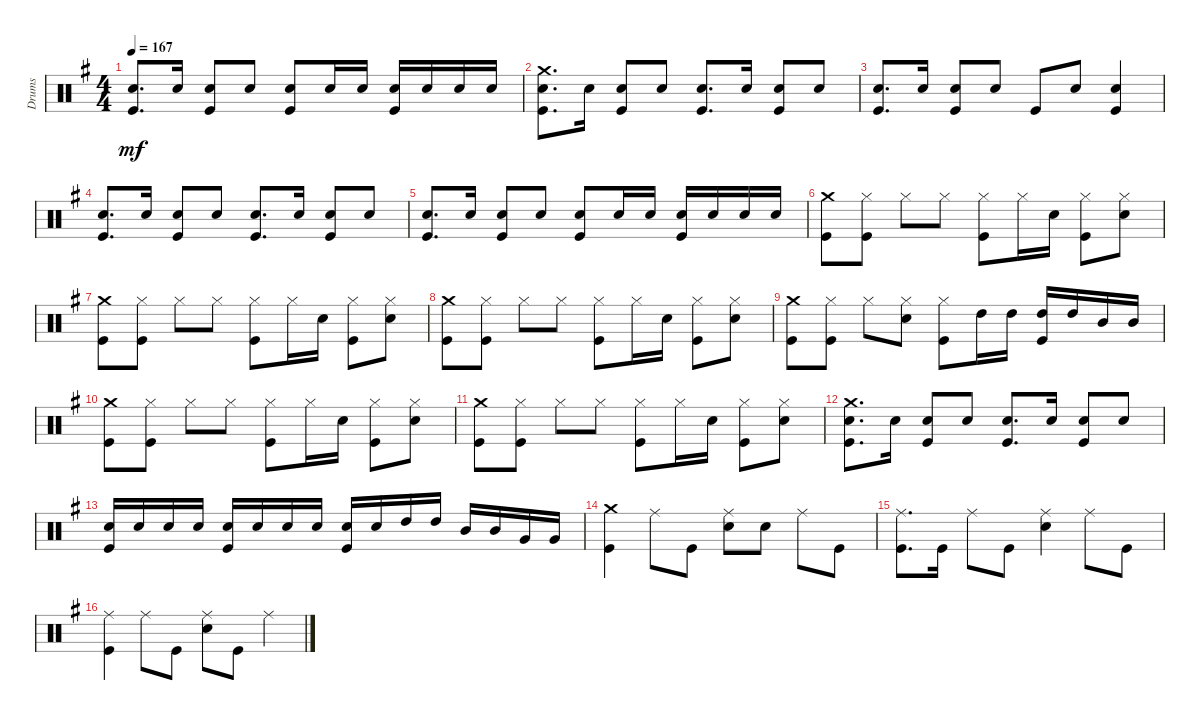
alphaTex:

\track ("Drums" "Drums") {instrument percussion}
\staff {score}
\articulation defaults
\ts (4 4)
\tempo 167
\clef neutral
\ks eminor
("Snare (hit) 2" "Kick (hit)").8{d dy mf} "Snare (hit) 2".16 ("Snare (hit) 2" "Kick (hit)").8 "Snare (hit) 2".8 ("Snare (hit) 2" "Kick (hit)").8 "Snare (hit) 2".16 "Snare (hit) 2".16 ("Kick (hit)" "Snare (hit) 2").16 "Snare (hit) 2".16 "Snare (hit) 2".16 "Snare (hit) 2".16 |
("Kick (hit)" "Snare (hit) 2" "Crash medium (hit)").8{d} "Snare (hit) 2".16 ("Snare (hit) 2" "Kick (hit)").8 "Snare (hit) 2".8 ("Snare (hit) 2" "Kick (hit)").8{d} "Snare (hit) 2".16 ("Snare (hit) 2" "Kick (hit)").8 "Snare (hit) 2".8 |
("Snare (hit) 2" "Kick (hit)").8{d} "Snare (hit) 2".16 ("Snare (hit) 2" "Kick (hit)").8 "Snare (hit) 2".8 "Kick (hit)".8 "Snare (hit) 2".8 ("Snare (hit) 2" "Kick (hit)").4 |
("Snare (hit) 2" "Kick (hit)").8{d} "Snare (hit) 2".16 ("Snare (hit) 2" "Kick (hit)").8 "Snare (hit) 2".8 ("Snare (hit) 2" "Kick (hit)").8{d} "Snare (hit) 2".16 ("Snare (hit) 2" "Kick (hit)").8 "Snare (hit) 2".8 |
("Snare (hit) 2" "Kick (hit)").8{d} "Snare (hit) 2".16 ("Snare (hit) 2" "Kick (hit)").8 "Snare (hit) 2".8 ("Snare (hit) 2" "Kick (hit)").8 "Snare (hit) 2".16 "Snare (hit) 2".16 ("Snare (hit) 2" "Kick (hit)").16 "Snare (hit) 2".16 "Snare (hit) 2".16 "Snare (hit) 2".16 |
("Crash medium (hit)" "Kick (hit)").8 ("Hi-Hat (closed)" "Kick (hit)").8 "Hi-Hat (closed)".8 "Hi-Hat (closed)".8 ("Hi-Hat (closed)" "Kick (hit)").8 "Hi-Hat (closed)".16 "Snare (hit) 2".16 ("Hi-Hat (closed)" "Kick (hit)").8 ("Hi-Hat (closed)" "Snare (hit) 2").8 |
("Crash medium (hit)" "Kick (hit)").8 ("Hi-Hat (closed)" "Kick (hit)").8 "Hi-Hat (closed)".8 "Hi-Hat (closed)".8 ("Hi-Hat (closed)" "Kick (hit)").8 "Hi-Hat (closed)".16 "Snare (hit) 2".16 ("Hi-Hat (closed)" "Kick (hit)").8 ("Hi-Hat (closed)" "Snare (hit) 2").8 |
("Crash medium (hit)" "Kick (hit)").8 ("Hi-Hat (closed)" "Kick (hit)").8 "Hi-Hat (closed)".8 "Hi-Hat (closed)".8 ("Hi-Hat (closed)" "Kick (hit)").8 "Hi-Hat (closed)".16 "Snare (hit) 2".16 ("Hi-Hat (closed)" "Kick (hit)").8 ("Hi-Hat (closed)" "Snare (hit) 2").8 |
("Crash medium (hit)" "Kick (hit)").8 ("Hi-Hat (closed)" "Kick (hit)").8 "Hi-Hat (closed)".8 ("Hi-Hat (closed)" "Snare (hit) 2").8 ("Hi-Hat (closed)" "Kick (hit)").8 "High Tom (hit)".16 "High Tom (hit)".16 ("Kick (hit)" "High Tom (hit)").16 "High Tom (hit)".16 "Mid Tom (hit)".16 "Mid Tom (hit)".16 |
("Crash medium (hit)" "Kick (hit)").8 ("Hi-Hat (closed)" "Kick (hit)").8 "Hi-Hat (closed)".8 "Hi-Hat (closed)".8 ("Hi-Hat (closed)" "Kick (hit)").8 "Hi-Hat (closed)".16 "Snare (hit) 2".16 ("Hi-Hat (closed)" "Kick (hit)").8 ("Hi-Hat (closed)" "Snare (hit) 2").8 |
("Crash medium (hit)" "Kick (hit)").8 ("Hi-Hat (closed)" "Kick (hit)").8 "Hi-Hat (closed)".8 "Hi-Hat (closed)".8 ("Hi-Hat (closed)" "Kick (hit)").8 "Hi-Hat (closed)".16 "Snare (hit) 2".16 ("Hi-Hat (closed)" "Kick (hit)").8 ("Hi-Hat (closed)" "Snare (hit) 2").8 |
("Snare (hit) 2" "Crash medium (hit)" "Kick (hit)").8{d} "Snare (hit) 2".16 ("Snare (hit) 2" "Kick (hit)").8 "Snare (hit) 2".8 ("Snare (hit) 2" "Kick (hit)").8{d} "Snare (hit) 2".16 ("Snare (hit) 2" "Kick (hit)").8 "Snare (hit) 2".8 |
("Kick (hit)" "Snare (hit) 2").16 "Snare (hit) 2".16 "Snare (hit) 2".16 "Snare (hit) 2".16 ("Snare (hit) 2" "Kick (hit)").16 "Snare (hit) 2".16 "Snare (hit) 2".16 "Snare (hit) 2".16 ("Snare (hit) 2" "Kick (hit)").16 "Snare (hit) 2".16 "High Tom (hit)".16 "High Tom (hit)".16 "Mid Tom (hit)".16 "Mid Tom (hit)".16 "Very Low Tom (hit)".16 "Very Low Tom (hit)".16 |
("Crash medium (hit)" "Kick (hit)").4 "Ride (middle)".8 "Kick (hit)".8 ("Snare (hit) 2" "Ride (middle)").8 "Snare (hit) 2".8 "Ride (middle)".8 "Kick (hit)".8 |
("Kick (hit)" "Ride (middle)").8{d} "Kick (hit)".16 "Ride (middle)".8 "Kick (hit)".8 ("Ride (middle)" "Snare (hit) 2").4 "Ride (middle)".8 "Kick (hit)".8 |
("Ride (middle)" "Kick (hit)").4 "Ride (middle)".8 "Kick (hit)".8 ("Ride (middle)" "Snare (hit) 2").8 "Kick (hit)".8 "Ride (middle)".4
